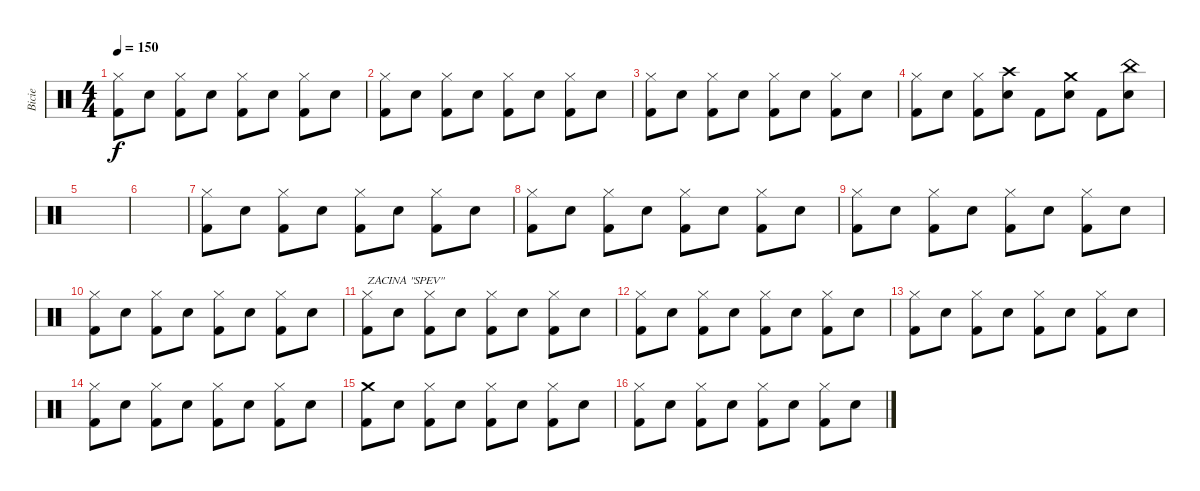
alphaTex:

\track ("Bicie" "Bicie") {instrument percussion}
\staff {score}
\articulation defaults
\ts (4 4)
\tempo 150
\clef neutral
\ks c
("Hi-Hat (closed)" "Kick (hit) 2").8{dy f} "Snare (hit) 2".8 ("Hi-Hat (closed)" "Kick (hit) 2").8 "Snare (hit) 2".8 ("Hi-Hat (closed)" "Kick (hit) 2").8 "Snare (hit) 2".8 ("Hi-Hat (closed)" "Kick (hit) 2").8 "Snare (hit) 2".8 |
("Hi-Hat (closed)" "Kick (hit) 2").8 "Snare (hit) 2".8 ("Hi-Hat (closed)" "Kick (hit) 2").8 "Snare (hit) 2".8 ("Hi-Hat (closed)" "Kick (hit) 2").8 "Snare (hit) 2".8 ("Hi-Hat (closed)" "Kick (hit) 2").8 "Snare (hit) 2".8 |
("Hi-Hat (closed)" "Kick (hit) 2").8 "Snare (hit) 2".8 ("Hi-Hat (closed)" "Kick (hit) 2").8 "Snare (hit) 2".8 ("Hi-Hat (closed)" "Kick (hit) 2").8 "Snare (hit) 2".8 ("Hi-Hat (closed)" "Kick (hit) 2").8 "Snare (hit) 2".8 |
("Hi-Hat (closed)" "Kick (hit) 2").8 "Snare (hit) 2".8 ("Hi-Hat (closed)" "Kick (hit) 2").8 ("Crash high (hit)" "Snare (hit) 2").8 "Kick (hit) 2".8 ("Crash medium (hit)" "Snare (hit) 2").8 "Kick (hit) 2".8 ("China (hit)" "Snare (hit) 2").8 |
|
|
("Hi-Hat (closed)" "Kick (hit) 2").8 "Snare (hit) 2".8 ("Hi-Hat (closed)" "Kick (hit) 2").8 "Snare (hit) 2".8 ("Hi-Hat (closed)" "Kick (hit) 2").8 "Snare (hit) 2".8 ("Hi-Hat (closed)" "Kick (hit) 2").8 "Snare (hit) 2".8 |
("Hi-Hat (closed)" "Kick (hit) 2").8 "Snare (hit) 2".8 ("Hi-Hat (closed)" "Kick (hit) 2").8 "Snare (hit) 2".8 ("Hi-Hat (closed)" "Kick (hit) 2").8 "Snare (hit) 2".8 ("Hi-Hat (closed)" "Kick (hit) 2").8 "Snare (hit) 2".8 |
("Hi-Hat (closed)" "Kick (hit) 2").8 "Snare (hit) 2".8 ("Hi-Hat (closed)" "Kick (hit) 2").8 "Snare (hit) 2".8 ("Hi-Hat (closed)" "Kick (hit) 2").8 "Snare (hit) 2".8 ("Hi-Hat (closed)" "Kick (hit) 2").8 "Snare (hit) 2".8 |
("Hi-Hat (closed)" "Kick (hit) 2").8 "Snare (hit) 2".8 ("Hi-Hat (closed)" "Kick (hit) 2").8 "Snare (hit) 2".8 ("Hi-Hat (closed)" "Kick (hit) 2").8 "Snare (hit) 2".8 ("Hi-Hat (closed)" "Kick (hit) 2").8 "Snare (hit) 2".8 |
("Hi-Hat (closed)" "Kick (hit) 2").8{txt "ZACINA \"SPEV\""} "Snare (hit) 2".8 ("Hi-Hat (closed)" "Kick (hit) 2").8 "Snare (hit) 2".8 ("Hi-Hat (closed)" "Kick (hit) 2").8 "Snare (hit) 2".8 ("Hi-Hat (closed)" "Kick (hit) 2").8 "Snare (hit) 2".8 |
("Hi-Hat (closed)" "Kick (hit) 2").8 "Snare (hit) 2".8 ("Hi-Hat (closed)" "Kick (hit) 2").8 "Snare (hit) 2".8 ("Hi-Hat (closed)" "Kick (hit) 2").8 "Snare (hit) 2".8 ("Hi-Hat (closed)" "Kick (hit) 2").8 "Snare (hit) 2".8 |
("Hi-Hat (closed)" "Kick (hit) 2").8 "Snare (hit) 2".8 ("Hi-Hat (closed)" "Kick (hit) 2").8 "Snare (hit) 2".8 ("Hi-Hat (closed)" "Kick (hit) 2").8 "Snare (hit) 2".8 ("Hi-Hat (closed)" "Kick (hit) 2").8 "Snare (hit) 2".8 |
("Hi-Hat (closed)" "Kick (hit) 2").8 "Snare (hit) 2".8 ("Hi-Hat (closed)" "Kick (hit) 2").8 "Snare (hit) 2".8 ("Hi-Hat (closed)" "Kick (hit) 2").8 "Snare (hit) 2".8 ("Hi-Hat (closed)" "Kick (hit) 2").8 "Snare (hit) 2".8 |
("Crash medium (hit)" "Kick (hit) 2").8 "Snare (hit) 2".8 ("Hi-Hat (closed)" "Kick (hit) 2").8 "Snare (hit) 2".8 ("Hi-Hat (closed)" "Kick (hit) 2").8 "Snare (hit) 2".8 ("Hi-Hat (closed)" "Kick (hit) 2").8 "Snare (hit) 2".8 |
("Hi-Hat (closed)" "Kick (hit) 2").8 "Snare (hit) 2".8 ("Hi-Hat (closed)" "Kick (hit) 2").8 "Snare (hit) 2".8 ("Hi-Hat (closed)" "Kick (hit) 2").8 "Snare (hit) 2".8 ("Hi-Hat (closed)" "Kick (hit) 2").8 "Snare (hit) 2".8
